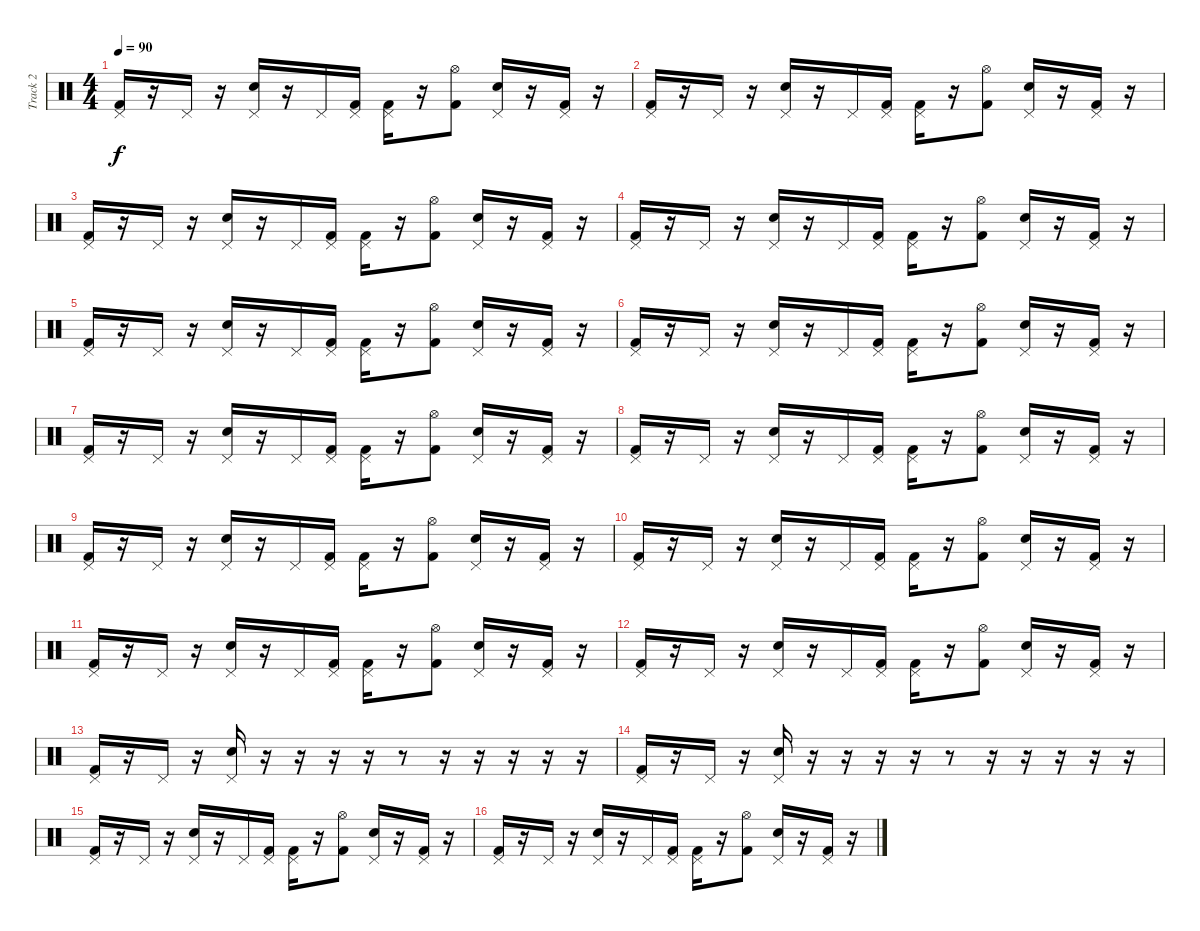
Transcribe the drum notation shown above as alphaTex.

\track ("Track 2" "Track 2") {instrument percussion}
\staff {score}
\articulation defaults
\ts (4 4)
\tempo 90
\clef neutral
\ks c
("Pedal Hi-Hat (hit)" "Kick (hit) 2").16{dy f} r.16 "Pedal Hi-Hat (hit)".16 r.16 ("Pedal Hi-Hat (hit)" "Electric Snare (hit)").16 r.16 "Pedal Hi-Hat (hit)".16 ("Pedal Hi-Hat (hit)" "Kick (hit) 2").16 ("Pedal Hi-Hat (hit)" "Kick (hit) 2").16 r.16 ("Hi-Hat (open)" "Kick (hit) 2").8 ("Pedal Hi-Hat (hit)" "Electric Snare (hit)").16 r.16 ("Pedal Hi-Hat (hit)" "Kick (hit) 2").16 r.16 |
("Pedal Hi-Hat (hit)" "Kick (hit) 2").16 r.16 "Pedal Hi-Hat (hit)".16 r.16 ("Pedal Hi-Hat (hit)" "Electric Snare (hit)").16 r.16 "Pedal Hi-Hat (hit)".16 ("Pedal Hi-Hat (hit)" "Kick (hit) 2").16 ("Pedal Hi-Hat (hit)" "Kick (hit) 2").16 r.16 ("Hi-Hat (open)" "Kick (hit) 2").8 ("Pedal Hi-Hat (hit)" "Electric Snare (hit)").16 r.16 ("Pedal Hi-Hat (hit)" "Kick (hit) 2").16 r.16 |
("Pedal Hi-Hat (hit)" "Kick (hit) 2").16 r.16 "Pedal Hi-Hat (hit)".16 r.16 ("Pedal Hi-Hat (hit)" "Electric Snare (hit)").16 r.16 "Pedal Hi-Hat (hit)".16 ("Pedal Hi-Hat (hit)" "Kick (hit) 2").16 ("Pedal Hi-Hat (hit)" "Kick (hit) 2").16 r.16 ("Hi-Hat (open)" "Kick (hit) 2").8 ("Pedal Hi-Hat (hit)" "Electric Snare (hit)").16 r.16 ("Pedal Hi-Hat (hit)" "Kick (hit) 2").16 r.16 |
("Pedal Hi-Hat (hit)" "Kick (hit) 2").16 r.16 "Pedal Hi-Hat (hit)".16 r.16 ("Pedal Hi-Hat (hit)" "Electric Snare (hit)").16 r.16 "Pedal Hi-Hat (hit)".16 ("Pedal Hi-Hat (hit)" "Kick (hit) 2").16 ("Pedal Hi-Hat (hit)" "Kick (hit) 2").16 r.16 ("Hi-Hat (open)" "Kick (hit) 2").8 ("Pedal Hi-Hat (hit)" "Electric Snare (hit)").16 r.16 ("Pedal Hi-Hat (hit)" "Kick (hit) 2").16 r.16 |
("Pedal Hi-Hat (hit)" "Kick (hit) 2").16 r.16 "Pedal Hi-Hat (hit)".16 r.16 ("Pedal Hi-Hat (hit)" "Electric Snare (hit)").16 r.16 "Pedal Hi-Hat (hit)".16 ("Pedal Hi-Hat (hit)" "Kick (hit) 2").16 ("Pedal Hi-Hat (hit)" "Kick (hit) 2").16 r.16 ("Hi-Hat (open)" "Kick (hit) 2").8 ("Pedal Hi-Hat (hit)" "Electric Snare (hit)").16 r.16 ("Pedal Hi-Hat (hit)" "Kick (hit) 2").16 r.16 |
("Pedal Hi-Hat (hit)" "Kick (hit) 2").16 r.16 "Pedal Hi-Hat (hit)".16 r.16 ("Pedal Hi-Hat (hit)" "Electric Snare (hit)").16 r.16 "Pedal Hi-Hat (hit)".16 ("Pedal Hi-Hat (hit)" "Kick (hit) 2").16 ("Pedal Hi-Hat (hit)" "Kick (hit) 2").16 r.16 ("Hi-Hat (open)" "Kick (hit) 2").8 ("Pedal Hi-Hat (hit)" "Electric Snare (hit)").16 r.16 ("Pedal Hi-Hat (hit)" "Kick (hit) 2").16 r.16 |
("Pedal Hi-Hat (hit)" "Kick (hit) 2").16 r.16 "Pedal Hi-Hat (hit)".16 r.16 ("Pedal Hi-Hat (hit)" "Electric Snare (hit)").16 r.16 "Pedal Hi-Hat (hit)".16 ("Pedal Hi-Hat (hit)" "Kick (hit) 2").16 ("Pedal Hi-Hat (hit)" "Kick (hit) 2").16 r.16 ("Hi-Hat (open)" "Kick (hit) 2").8 ("Pedal Hi-Hat (hit)" "Electric Snare (hit)").16 r.16 ("Pedal Hi-Hat (hit)" "Kick (hit) 2").16 r.16 |
("Pedal Hi-Hat (hit)" "Kick (hit) 2").16 r.16 "Pedal Hi-Hat (hit)".16 r.16 ("Pedal Hi-Hat (hit)" "Electric Snare (hit)").16 r.16 "Pedal Hi-Hat (hit)".16 ("Pedal Hi-Hat (hit)" "Kick (hit) 2").16 ("Pedal Hi-Hat (hit)" "Kick (hit) 2").16 r.16 ("Hi-Hat (open)" "Kick (hit) 2").8 ("Pedal Hi-Hat (hit)" "Electric Snare (hit)").16 r.16 ("Pedal Hi-Hat (hit)" "Kick (hit) 2").16 r.16 |
("Pedal Hi-Hat (hit)" "Kick (hit) 2").16 r.16 "Pedal Hi-Hat (hit)".16 r.16 ("Pedal Hi-Hat (hit)" "Electric Snare (hit)").16 r.16 "Pedal Hi-Hat (hit)".16 ("Pedal Hi-Hat (hit)" "Kick (hit) 2").16 ("Pedal Hi-Hat (hit)" "Kick (hit) 2").16 r.16 ("Hi-Hat (open)" "Kick (hit) 2").8 ("Pedal Hi-Hat (hit)" "Electric Snare (hit)").16 r.16 ("Pedal Hi-Hat (hit)" "Kick (hit) 2").16 r.16 |
("Pedal Hi-Hat (hit)" "Kick (hit) 2").16 r.16 "Pedal Hi-Hat (hit)".16 r.16 ("Pedal Hi-Hat (hit)" "Electric Snare (hit)").16 r.16 "Pedal Hi-Hat (hit)".16 ("Pedal Hi-Hat (hit)" "Kick (hit) 2").16 ("Pedal Hi-Hat (hit)" "Kick (hit) 2").16 r.16 ("Hi-Hat (open)" "Kick (hit) 2").8 ("Pedal Hi-Hat (hit)" "Electric Snare (hit)").16 r.16 ("Pedal Hi-Hat (hit)" "Kick (hit) 2").16 r.16 |
("Pedal Hi-Hat (hit)" "Kick (hit) 2").16 r.16 "Pedal Hi-Hat (hit)".16 r.16 ("Pedal Hi-Hat (hit)" "Electric Snare (hit)").16 r.16 "Pedal Hi-Hat (hit)".16 ("Pedal Hi-Hat (hit)" "Kick (hit) 2").16 ("Pedal Hi-Hat (hit)" "Kick (hit) 2").16 r.16 ("Hi-Hat (open)" "Kick (hit) 2").8 ("Pedal Hi-Hat (hit)" "Electric Snare (hit)").16 r.16 ("Pedal Hi-Hat (hit)" "Kick (hit) 2").16 r.16 |
("Pedal Hi-Hat (hit)" "Kick (hit) 2").16 r.16 "Pedal Hi-Hat (hit)".16 r.16 ("Pedal Hi-Hat (hit)" "Electric Snare (hit)").16 r.16 "Pedal Hi-Hat (hit)".16 ("Pedal Hi-Hat (hit)" "Kick (hit) 2").16 ("Pedal Hi-Hat (hit)" "Kick (hit) 2").16 r.16 ("Hi-Hat (open)" "Kick (hit) 2").8 ("Pedal Hi-Hat (hit)" "Electric Snare (hit)").16 r.16 ("Pedal Hi-Hat (hit)" "Kick (hit) 2").16 r.16 |
("Pedal Hi-Hat (hit)" "Kick (hit) 2").16 r.16 "Pedal Hi-Hat (hit)".16 r.16 ("Pedal Hi-Hat (hit)" "Electric Snare (hit)").16 r.16 r.16 r.16 r.16 r.8 r.16 r.16 r.16 r.16 r.16 |
("Pedal Hi-Hat (hit)" "Kick (hit) 2").16 r.16 "Pedal Hi-Hat (hit)".16 r.16 ("Pedal Hi-Hat (hit)" "Electric Snare (hit)").16 r.16 r.16 r.16 r.16 r.8 r.16 r.16 r.16 r.16 r.16 |
("Pedal Hi-Hat (hit)" "Kick (hit) 2").16 r.16 "Pedal Hi-Hat (hit)".16 r.16 ("Pedal Hi-Hat (hit)" "Electric Snare (hit)").16 r.16 "Pedal Hi-Hat (hit)".16 ("Pedal Hi-Hat (hit)" "Kick (hit) 2").16 ("Pedal Hi-Hat (hit)" "Kick (hit) 2").16 r.16 ("Hi-Hat (open)" "Kick (hit) 2").8 ("Pedal Hi-Hat (hit)" "Electric Snare (hit)").16 r.16 ("Pedal Hi-Hat (hit)" "Kick (hit) 2").16 r.16 |
("Pedal Hi-Hat (hit)" "Kick (hit) 2").16 r.16 "Pedal Hi-Hat (hit)".16 r.16 ("Pedal Hi-Hat (hit)" "Electric Snare (hit)").16 r.16 "Pedal Hi-Hat (hit)".16 ("Pedal Hi-Hat (hit)" "Kick (hit) 2").16 ("Pedal Hi-Hat (hit)" "Kick (hit) 2").16 r.16 ("Hi-Hat (open)" "Kick (hit) 2").8 ("Pedal Hi-Hat (hit)" "Electric Snare (hit)").16 r.16 ("Pedal Hi-Hat (hit)" "Kick (hit) 2").16 r.16
